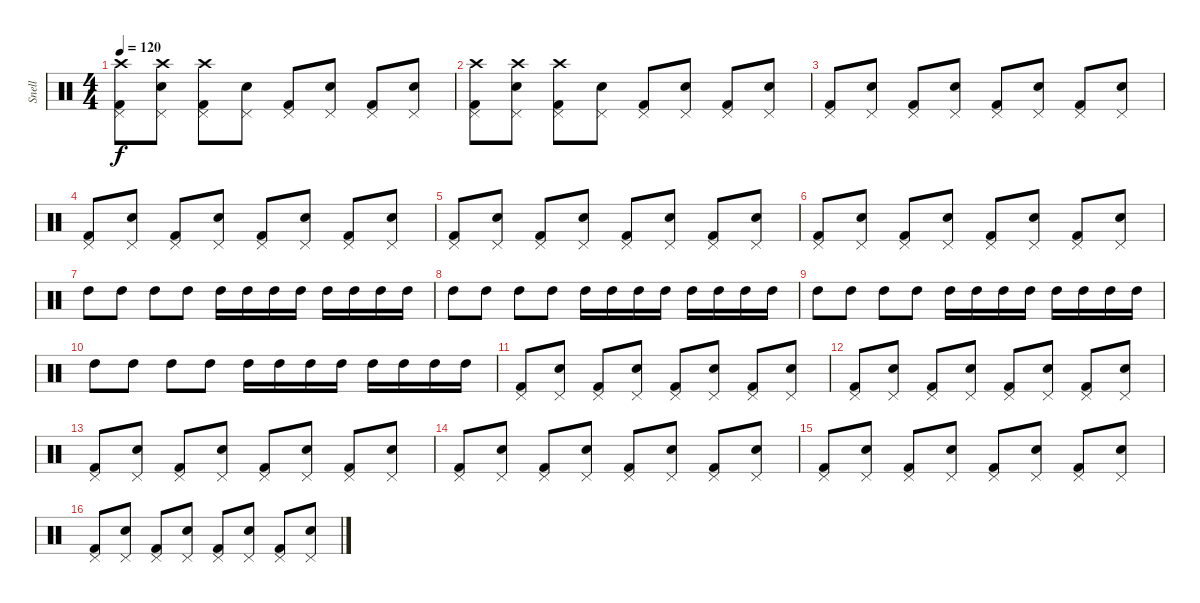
\track ("Snell" "Snell") {instrument percussion}
\staff {score}
\articulation defaults
\ts (4 4)
\tempo 120
\clef neutral
\ks c
("Crash high (hit)" "Pedal Hi-Hat (hit)" "Kick (hit) 2").8{dy f} ("Crash high (hit)" "Pedal Hi-Hat (hit)" "Snare (hit) 2").8 ("Crash high (hit)" "Pedal Hi-Hat (hit)" "Kick (hit) 2").8 ("Pedal Hi-Hat (hit)" "Snare (hit) 2").8 ("Pedal Hi-Hat (hit)" "Kick (hit) 2").8 ("Pedal Hi-Hat (hit)" "Snare (hit) 2").8 ("Pedal Hi-Hat (hit)" "Kick (hit) 2").8 ("Pedal Hi-Hat (hit)" "Snare (hit) 2").8 |
("Crash high (hit)" "Pedal Hi-Hat (hit)" "Kick (hit) 2").8 ("Crash high (hit)" "Pedal Hi-Hat (hit)" "Snare (hit) 2").8 ("Crash high (hit)" "Pedal Hi-Hat (hit)" "Kick (hit) 2").8 ("Pedal Hi-Hat (hit)" "Snare (hit) 2").8 ("Pedal Hi-Hat (hit)" "Kick (hit) 2").8 ("Pedal Hi-Hat (hit)" "Snare (hit) 2").8 ("Pedal Hi-Hat (hit)" "Kick (hit) 2").8 ("Pedal Hi-Hat (hit)" "Snare (hit) 2").8 |
("Pedal Hi-Hat (hit)" "Kick (hit) 2").8 ("Pedal Hi-Hat (hit)" "Snare (hit) 2").8 ("Pedal Hi-Hat (hit)" "Kick (hit) 2").8 ("Pedal Hi-Hat (hit)" "Snare (hit) 2").8 ("Pedal Hi-Hat (hit)" "Kick (hit) 2").8 ("Pedal Hi-Hat (hit)" "Snare (hit) 2").8 ("Pedal Hi-Hat (hit)" "Kick (hit) 2").8 ("Pedal Hi-Hat (hit)" "Snare (hit) 2").8 |
("Pedal Hi-Hat (hit)" "Kick (hit) 2").8 ("Pedal Hi-Hat (hit)" "Snare (hit) 2").8 ("Pedal Hi-Hat (hit)" "Kick (hit) 2").8 ("Pedal Hi-Hat (hit)" "Snare (hit) 2").8 ("Pedal Hi-Hat (hit)" "Kick (hit) 2").8 ("Pedal Hi-Hat (hit)" "Snare (hit) 2").8 ("Pedal Hi-Hat (hit)" "Kick (hit) 2").8 ("Pedal Hi-Hat (hit)" "Snare (hit) 2").8 |
("Pedal Hi-Hat (hit)" "Kick (hit) 2").8 ("Pedal Hi-Hat (hit)" "Snare (hit) 2").8 ("Pedal Hi-Hat (hit)" "Kick (hit) 2").8 ("Pedal Hi-Hat (hit)" "Snare (hit) 2").8 ("Pedal Hi-Hat (hit)" "Kick (hit) 2").8 ("Pedal Hi-Hat (hit)" "Snare (hit) 2").8 ("Pedal Hi-Hat (hit)" "Kick (hit) 2").8 ("Pedal Hi-Hat (hit)" "Snare (hit) 2").8 |
("Pedal Hi-Hat (hit)" "Kick (hit) 2").8 ("Pedal Hi-Hat (hit)" "Snare (hit) 2").8 ("Pedal Hi-Hat (hit)" "Kick (hit) 2").8 ("Pedal Hi-Hat (hit)" "Snare (hit) 2").8 ("Pedal Hi-Hat (hit)" "Kick (hit) 2").8 ("Pedal Hi-Hat (hit)" "Snare (hit) 2").8 ("Pedal Hi-Hat (hit)" "Kick (hit) 2").8 ("Pedal Hi-Hat (hit)" "Snare (hit) 2").8 |
"High Tom (hit)".8 "High Tom (hit)".8 "High Tom (hit)".8 "High Tom (hit)".8 "High Tom (hit)".16 "High Tom (hit)".16 "High Tom (hit)".16 "High Tom (hit)".16 "High Tom (hit)".16 "High Tom (hit)".16 "High Tom (hit)".16 "High Tom (hit)".16 |
"High Tom (hit)".8 "High Tom (hit)".8 "High Tom (hit)".8 "High Tom (hit)".8 "High Tom (hit)".16 "High Tom (hit)".16 "High Tom (hit)".16 "High Tom (hit)".16 "High Tom (hit)".16 "High Tom (hit)".16 "High Tom (hit)".16 "High Tom (hit)".16 |
"High Tom (hit)".8 "High Tom (hit)".8 "High Tom (hit)".8 "High Tom (hit)".8 "High Tom (hit)".16 "High Tom (hit)".16 "High Tom (hit)".16 "High Tom (hit)".16 "High Tom (hit)".16 "High Tom (hit)".16 "High Tom (hit)".16 "High Tom (hit)".16 |
"High Tom (hit)".8 "High Tom (hit)".8 "High Tom (hit)".8 "High Tom (hit)".8 "High Tom (hit)".16 "High Tom (hit)".16 "High Tom (hit)".16 "High Tom (hit)".16 "High Tom (hit)".16 "High Tom (hit)".16 "High Tom (hit)".16 "High Tom (hit)".16 |
("Pedal Hi-Hat (hit)" "Kick (hit) 2").8 ("Pedal Hi-Hat (hit)" "Snare (hit) 2").8 ("Pedal Hi-Hat (hit)" "Kick (hit) 2").8 ("Pedal Hi-Hat (hit)" "Snare (hit) 2").8 ("Pedal Hi-Hat (hit)" "Kick (hit) 2").8 ("Pedal Hi-Hat (hit)" "Snare (hit) 2").8 ("Pedal Hi-Hat (hit)" "Kick (hit) 2").8 ("Pedal Hi-Hat (hit)" "Snare (hit) 2").8 |
("Pedal Hi-Hat (hit)" "Kick (hit) 2").8 ("Pedal Hi-Hat (hit)" "Snare (hit) 2").8 ("Pedal Hi-Hat (hit)" "Kick (hit) 2").8 ("Pedal Hi-Hat (hit)" "Snare (hit) 2").8 ("Pedal Hi-Hat (hit)" "Kick (hit) 2").8 ("Pedal Hi-Hat (hit)" "Snare (hit) 2").8 ("Pedal Hi-Hat (hit)" "Kick (hit) 2").8 ("Pedal Hi-Hat (hit)" "Snare (hit) 2").8 |
("Pedal Hi-Hat (hit)" "Kick (hit) 2").8 ("Pedal Hi-Hat (hit)" "Snare (hit) 2").8 ("Pedal Hi-Hat (hit)" "Kick (hit) 2").8 ("Pedal Hi-Hat (hit)" "Snare (hit) 2").8 ("Pedal Hi-Hat (hit)" "Kick (hit) 2").8 ("Pedal Hi-Hat (hit)" "Snare (hit) 2").8 ("Pedal Hi-Hat (hit)" "Kick (hit) 2").8 ("Pedal Hi-Hat (hit)" "Snare (hit) 2").8 |
("Pedal Hi-Hat (hit)" "Kick (hit) 2").8 ("Pedal Hi-Hat (hit)" "Snare (hit) 2").8 ("Pedal Hi-Hat (hit)" "Kick (hit) 2").8 ("Pedal Hi-Hat (hit)" "Snare (hit) 2").8 ("Pedal Hi-Hat (hit)" "Kick (hit) 2").8 ("Pedal Hi-Hat (hit)" "Snare (hit) 2").8 ("Pedal Hi-Hat (hit)" "Kick (hit) 2").8 ("Pedal Hi-Hat (hit)" "Snare (hit) 2").8 |
("Pedal Hi-Hat (hit)" "Kick (hit) 2").8 ("Pedal Hi-Hat (hit)" "Snare (hit) 2").8 ("Pedal Hi-Hat (hit)" "Kick (hit) 2").8 ("Pedal Hi-Hat (hit)" "Snare (hit) 2").8 ("Pedal Hi-Hat (hit)" "Kick (hit) 2").8 ("Pedal Hi-Hat (hit)" "Snare (hit) 2").8 ("Pedal Hi-Hat (hit)" "Kick (hit) 2").8 ("Pedal Hi-Hat (hit)" "Snare (hit) 2").8 |
("Pedal Hi-Hat (hit)" "Kick (hit) 2").8 ("Pedal Hi-Hat (hit)" "Snare (hit) 2").8 ("Pedal Hi-Hat (hit)" "Kick (hit) 2").8 ("Pedal Hi-Hat (hit)" "Snare (hit) 2").8 ("Pedal Hi-Hat (hit)" "Kick (hit) 2").8 ("Pedal Hi-Hat (hit)" "Snare (hit) 2").8 ("Pedal Hi-Hat (hit)" "Kick (hit) 2").8 ("Pedal Hi-Hat (hit)" "Snare (hit) 2").8
